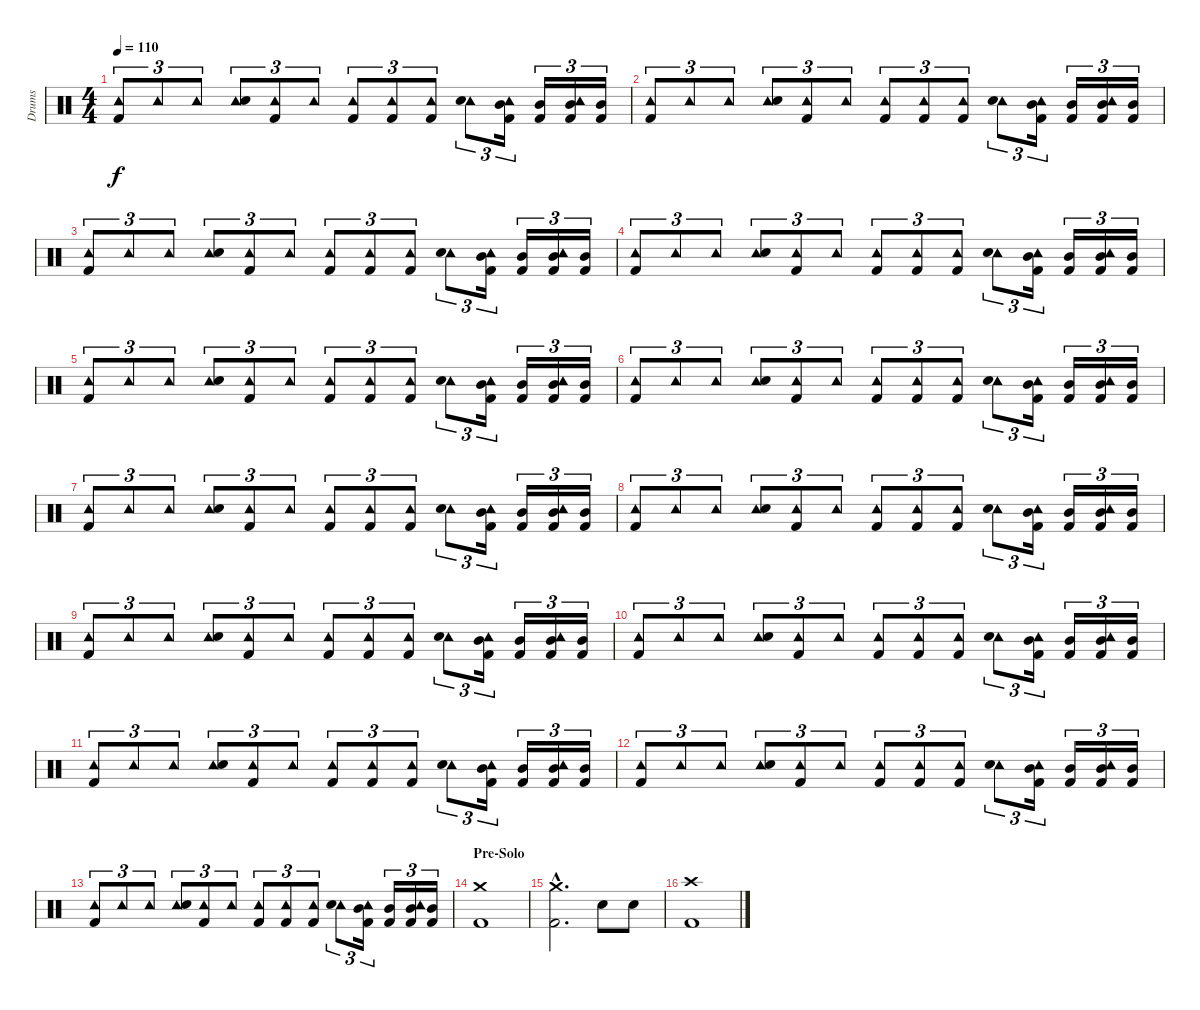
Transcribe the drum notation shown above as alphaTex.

\track ("Drums" "Drums") {instrument percussion}
\staff {score}
\articulation defaults
\ts (4 4)
\tempo 110
\clef neutral
\ks c
("Tambourine (hit)" "Kick (hit) 2").8{tu (3 2) dy f} "Tambourine (hit)".8{tu (3 2)} "Tambourine (hit)".8{tu (3 2)} ("Tambourine (hit)" "Electric Snare (hit)").8{tu (3 2)} ("Tambourine (hit)" "Kick (hit) 2").8{tu (3 2)} "Tambourine (hit)".8{tu (3 2)} ("Tambourine (hit)" "Kick (hit) 2").8{tu (3 2)} ("Tambourine (hit)" "Kick (hit) 2").8{tu (3 2)} ("Tambourine (hit)" "Kick (hit) 2").8{tu (3 2)} ("Tambourine (hit)" "Electric Snare (hit)").8{tu (3 2)} ("Tambourine (hit)" "Mid Tom (hit)" "Kick (hit) 2").16{tu (3 2)} ("Mid Tom (hit)" "Kick (hit) 2").16{tu (3 2)} ("Tambourine (hit)" "Mid Tom (hit)" "Kick (hit) 2").16{tu (3 2)} ("Mid Tom (hit)" "Kick (hit) 2").16{tu (3 2)} |
("Tambourine (hit)" "Kick (hit) 2").8{tu (3 2)} "Tambourine (hit)".8{tu (3 2)} "Tambourine (hit)".8{tu (3 2)} ("Tambourine (hit)" "Electric Snare (hit)").8{tu (3 2)} ("Tambourine (hit)" "Kick (hit) 2").8{tu (3 2)} "Tambourine (hit)".8{tu (3 2)} ("Tambourine (hit)" "Kick (hit) 2").8{tu (3 2)} ("Tambourine (hit)" "Kick (hit) 2").8{tu (3 2)} ("Tambourine (hit)" "Kick (hit) 2").8{tu (3 2)} ("Tambourine (hit)" "Electric Snare (hit)").8{tu (3 2)} ("Tambourine (hit)" "Mid Tom (hit)" "Kick (hit) 2").16{tu (3 2)} ("Mid Tom (hit)" "Kick (hit) 2").16{tu (3 2)} ("Tambourine (hit)" "Mid Tom (hit)" "Kick (hit) 2").16{tu (3 2)} ("Mid Tom (hit)" "Kick (hit) 2").16{tu (3 2)} |
("Tambourine (hit)" "Kick (hit) 2").8{tu (3 2)} "Tambourine (hit)".8{tu (3 2)} "Tambourine (hit)".8{tu (3 2)} ("Tambourine (hit)" "Electric Snare (hit)").8{tu (3 2)} ("Tambourine (hit)" "Kick (hit) 2").8{tu (3 2)} "Tambourine (hit)".8{tu (3 2)} ("Tambourine (hit)" "Kick (hit) 2").8{tu (3 2)} ("Tambourine (hit)" "Kick (hit) 2").8{tu (3 2)} ("Tambourine (hit)" "Kick (hit) 2").8{tu (3 2)} ("Tambourine (hit)" "Electric Snare (hit)").8{tu (3 2)} ("Tambourine (hit)" "Mid Tom (hit)" "Kick (hit) 2").16{tu (3 2)} ("Mid Tom (hit)" "Kick (hit) 2").16{tu (3 2)} ("Tambourine (hit)" "Mid Tom (hit)" "Kick (hit) 2").16{tu (3 2)} ("Mid Tom (hit)" "Kick (hit) 2").16{tu (3 2)} |
("Tambourine (hit)" "Kick (hit) 2").8{tu (3 2)} "Tambourine (hit)".8{tu (3 2)} "Tambourine (hit)".8{tu (3 2)} ("Tambourine (hit)" "Electric Snare (hit)").8{tu (3 2)} ("Tambourine (hit)" "Kick (hit) 2").8{tu (3 2)} "Tambourine (hit)".8{tu (3 2)} ("Tambourine (hit)" "Kick (hit) 2").8{tu (3 2)} ("Tambourine (hit)" "Kick (hit) 2").8{tu (3 2)} ("Tambourine (hit)" "Kick (hit) 2").8{tu (3 2)} ("Tambourine (hit)" "Electric Snare (hit)").8{tu (3 2)} ("Tambourine (hit)" "Mid Tom (hit)" "Kick (hit) 2").16{tu (3 2)} ("Mid Tom (hit)" "Kick (hit) 2").16{tu (3 2)} ("Tambourine (hit)" "Mid Tom (hit)" "Kick (hit) 2").16{tu (3 2)} ("Mid Tom (hit)" "Kick (hit) 2").16{tu (3 2)} |
("Tambourine (hit)" "Kick (hit) 2").8{tu (3 2)} "Tambourine (hit)".8{tu (3 2)} "Tambourine (hit)".8{tu (3 2)} ("Tambourine (hit)" "Electric Snare (hit)").8{tu (3 2)} ("Tambourine (hit)" "Kick (hit) 2").8{tu (3 2)} "Tambourine (hit)".8{tu (3 2)} ("Tambourine (hit)" "Kick (hit) 2").8{tu (3 2)} ("Tambourine (hit)" "Kick (hit) 2").8{tu (3 2)} ("Tambourine (hit)" "Kick (hit) 2").8{tu (3 2)} ("Tambourine (hit)" "Electric Snare (hit)").8{tu (3 2)} ("Tambourine (hit)" "Mid Tom (hit)" "Kick (hit) 2").16{tu (3 2)} ("Mid Tom (hit)" "Kick (hit) 2").16{tu (3 2)} ("Tambourine (hit)" "Mid Tom (hit)" "Kick (hit) 2").16{tu (3 2)} ("Mid Tom (hit)" "Kick (hit) 2").16{tu (3 2)} |
("Tambourine (hit)" "Kick (hit) 2").8{tu (3 2)} "Tambourine (hit)".8{tu (3 2)} "Tambourine (hit)".8{tu (3 2)} ("Tambourine (hit)" "Electric Snare (hit)").8{tu (3 2)} ("Tambourine (hit)" "Kick (hit) 2").8{tu (3 2)} "Tambourine (hit)".8{tu (3 2)} ("Tambourine (hit)" "Kick (hit) 2").8{tu (3 2)} ("Tambourine (hit)" "Kick (hit) 2").8{tu (3 2)} ("Tambourine (hit)" "Kick (hit) 2").8{tu (3 2)} ("Tambourine (hit)" "Electric Snare (hit)").8{tu (3 2)} ("Tambourine (hit)" "Mid Tom (hit)" "Kick (hit) 2").16{tu (3 2)} ("Mid Tom (hit)" "Kick (hit) 2").16{tu (3 2)} ("Tambourine (hit)" "Mid Tom (hit)" "Kick (hit) 2").16{tu (3 2)} ("Mid Tom (hit)" "Kick (hit) 2").16{tu (3 2)} |
("Tambourine (hit)" "Kick (hit) 2").8{tu (3 2)} "Tambourine (hit)".8{tu (3 2)} "Tambourine (hit)".8{tu (3 2)} ("Tambourine (hit)" "Electric Snare (hit)").8{tu (3 2)} ("Tambourine (hit)" "Kick (hit) 2").8{tu (3 2)} "Tambourine (hit)".8{tu (3 2)} ("Tambourine (hit)" "Kick (hit) 2").8{tu (3 2)} ("Tambourine (hit)" "Kick (hit) 2").8{tu (3 2)} ("Tambourine (hit)" "Kick (hit) 2").8{tu (3 2)} ("Tambourine (hit)" "Electric Snare (hit)").8{tu (3 2)} ("Tambourine (hit)" "Mid Tom (hit)" "Kick (hit) 2").16{tu (3 2)} ("Mid Tom (hit)" "Kick (hit) 2").16{tu (3 2)} ("Tambourine (hit)" "Mid Tom (hit)" "Kick (hit) 2").16{tu (3 2)} ("Mid Tom (hit)" "Kick (hit) 2").16{tu (3 2)} |
("Tambourine (hit)" "Kick (hit) 2").8{tu (3 2)} "Tambourine (hit)".8{tu (3 2)} "Tambourine (hit)".8{tu (3 2)} ("Tambourine (hit)" "Electric Snare (hit)").8{tu (3 2)} ("Tambourine (hit)" "Kick (hit) 2").8{tu (3 2)} "Tambourine (hit)".8{tu (3 2)} ("Tambourine (hit)" "Kick (hit) 2").8{tu (3 2)} ("Tambourine (hit)" "Kick (hit) 2").8{tu (3 2)} ("Tambourine (hit)" "Kick (hit) 2").8{tu (3 2)} ("Tambourine (hit)" "Electric Snare (hit)").8{tu (3 2)} ("Tambourine (hit)" "Mid Tom (hit)" "Kick (hit) 2").16{tu (3 2)} ("Mid Tom (hit)" "Kick (hit) 2").16{tu (3 2)} ("Tambourine (hit)" "Mid Tom (hit)" "Kick (hit) 2").16{tu (3 2)} ("Mid Tom (hit)" "Kick (hit) 2").16{tu (3 2)} |
("Tambourine (hit)" "Kick (hit) 2").8{tu (3 2)} "Tambourine (hit)".8{tu (3 2)} "Tambourine (hit)".8{tu (3 2)} ("Tambourine (hit)" "Electric Snare (hit)").8{tu (3 2)} ("Tambourine (hit)" "Kick (hit) 2").8{tu (3 2)} "Tambourine (hit)".8{tu (3 2)} ("Tambourine (hit)" "Kick (hit) 2").8{tu (3 2)} ("Tambourine (hit)" "Kick (hit) 2").8{tu (3 2)} ("Tambourine (hit)" "Kick (hit) 2").8{tu (3 2)} ("Tambourine (hit)" "Electric Snare (hit)").8{tu (3 2)} ("Tambourine (hit)" "Mid Tom (hit)" "Kick (hit) 2").16{tu (3 2)} ("Mid Tom (hit)" "Kick (hit) 2").16{tu (3 2)} ("Tambourine (hit)" "Mid Tom (hit)" "Kick (hit) 2").16{tu (3 2)} ("Mid Tom (hit)" "Kick (hit) 2").16{tu (3 2)} |
("Tambourine (hit)" "Kick (hit) 2").8{tu (3 2)} "Tambourine (hit)".8{tu (3 2)} "Tambourine (hit)".8{tu (3 2)} ("Tambourine (hit)" "Electric Snare (hit)").8{tu (3 2)} ("Tambourine (hit)" "Kick (hit) 2").8{tu (3 2)} "Tambourine (hit)".8{tu (3 2)} ("Tambourine (hit)" "Kick (hit) 2").8{tu (3 2)} ("Tambourine (hit)" "Kick (hit) 2").8{tu (3 2)} ("Tambourine (hit)" "Kick (hit) 2").8{tu (3 2)} ("Tambourine (hit)" "Electric Snare (hit)").8{tu (3 2)} ("Tambourine (hit)" "Mid Tom (hit)" "Kick (hit) 2").16{tu (3 2)} ("Mid Tom (hit)" "Kick (hit) 2").16{tu (3 2)} ("Tambourine (hit)" "Mid Tom (hit)" "Kick (hit) 2").16{tu (3 2)} ("Mid Tom (hit)" "Kick (hit) 2").16{tu (3 2)} |
("Tambourine (hit)" "Kick (hit) 2").8{tu (3 2)} "Tambourine (hit)".8{tu (3 2)} "Tambourine (hit)".8{tu (3 2)} ("Tambourine (hit)" "Electric Snare (hit)").8{tu (3 2)} ("Tambourine (hit)" "Kick (hit) 2").8{tu (3 2)} "Tambourine (hit)".8{tu (3 2)} ("Tambourine (hit)" "Kick (hit) 2").8{tu (3 2)} ("Tambourine (hit)" "Kick (hit) 2").8{tu (3 2)} ("Tambourine (hit)" "Kick (hit) 2").8{tu (3 2)} ("Tambourine (hit)" "Electric Snare (hit)").8{tu (3 2)} ("Tambourine (hit)" "Mid Tom (hit)" "Kick (hit) 2").16{tu (3 2)} ("Mid Tom (hit)" "Kick (hit) 2").16{tu (3 2)} ("Tambourine (hit)" "Mid Tom (hit)" "Kick (hit) 2").16{tu (3 2)} ("Mid Tom (hit)" "Kick (hit) 2").16{tu (3 2)} |
("Tambourine (hit)" "Kick (hit) 2").8{tu (3 2)} "Tambourine (hit)".8{tu (3 2)} "Tambourine (hit)".8{tu (3 2)} ("Tambourine (hit)" "Electric Snare (hit)").8{tu (3 2)} ("Tambourine (hit)" "Kick (hit) 2").8{tu (3 2)} "Tambourine (hit)".8{tu (3 2)} ("Tambourine (hit)" "Kick (hit) 2").8{tu (3 2)} ("Tambourine (hit)" "Kick (hit) 2").8{tu (3 2)} ("Tambourine (hit)" "Kick (hit) 2").8{tu (3 2)} ("Tambourine (hit)" "Electric Snare (hit)").8{tu (3 2)} ("Tambourine (hit)" "Mid Tom (hit)" "Kick (hit) 2").16{tu (3 2)} ("Mid Tom (hit)" "Kick (hit) 2").16{tu (3 2)} ("Tambourine (hit)" "Mid Tom (hit)" "Kick (hit) 2").16{tu (3 2)} ("Mid Tom (hit)" "Kick (hit) 2").16{tu (3 2)} |
("Tambourine (hit)" "Kick (hit) 2").8{tu (3 2)} "Tambourine (hit)".8{tu (3 2)} "Tambourine (hit)".8{tu (3 2)} ("Tambourine (hit)" "Electric Snare (hit)").8{tu (3 2)} ("Tambourine (hit)" "Kick (hit) 2").8{tu (3 2)} "Tambourine (hit)".8{tu (3 2)} ("Tambourine (hit)" "Kick (hit) 2").8{tu (3 2)} ("Tambourine (hit)" "Kick (hit) 2").8{tu (3 2)} ("Tambourine (hit)" "Kick (hit) 2").8{tu (3 2)} ("Tambourine (hit)" "Electric Snare (hit)").8{tu (3 2)} ("Tambourine (hit)" "Mid Tom (hit)" "Kick (hit) 2").16{tu (3 2)} ("Mid Tom (hit)" "Kick (hit) 2").16{tu (3 2)} ("Tambourine (hit)" "Mid Tom (hit)" "Kick (hit) 2").16{tu (3 2)} ("Mid Tom (hit)" "Kick (hit) 2").16{tu (3 2)} |
\section ("" "Pre-Solo")
("Crash medium (hit)" "Kick (hit) 2").1 |
("Crash medium (hit)"{hac} "Kick (hit) 2"{hac}).2{d} "Snare (hit) 2".8 "Snare (hit) 2".8 |
("Crash high (hit)" "Kick (hit) 2").1
